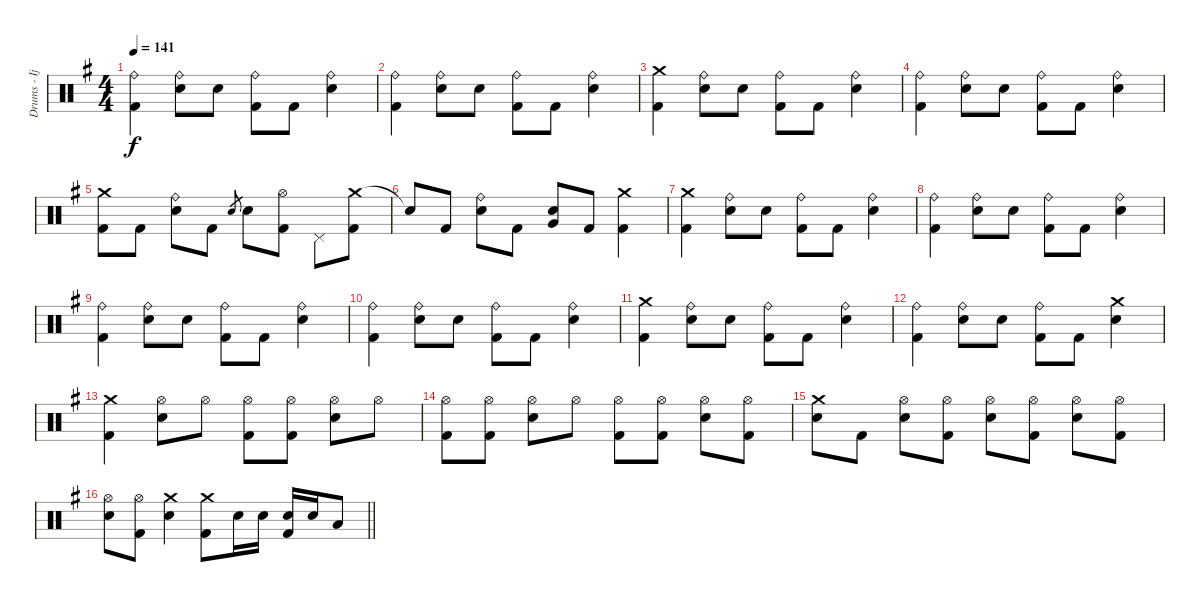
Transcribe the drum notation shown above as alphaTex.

\track ("Drums - Ijichi Kiyoshi" "Drums - Ij") {instrument percussion}
\staff {score}
\articulation defaults
\ts (4 4)
\tempo 141
\clef neutral
\ks g
("Ride (bell)" "Kick (hit) 2").4{dy f} ("Ride (bell)" "Electric Snare (hit)").8 "Electric Snare (hit)".8 ("Ride (bell)" "Kick (hit) 2").8 "Kick (hit) 2".8 ("Ride (bell)" "Electric Snare (hit)").4 |
("Ride (bell)" "Kick (hit) 2").4 ("Ride (bell)" "Electric Snare (hit)").8 "Electric Snare (hit)".8 ("Ride (bell)" "Kick (hit) 2").8 "Kick (hit) 2".8 ("Ride (bell)" "Electric Snare (hit)").4 |
("Crash medium (hit)" "Kick (hit) 2").4 ("Ride (bell)" "Electric Snare (hit)").8 "Electric Snare (hit)".8 ("Ride (bell)" "Kick (hit) 2").8 "Kick (hit) 2".8 ("Ride (bell)" "Electric Snare (hit)").4 |
("Ride (bell)" "Kick (hit) 2").4 ("Ride (bell)" "Electric Snare (hit)").8 "Electric Snare (hit)".8 ("Ride (bell)" "Kick (hit) 2").8 "Kick (hit) 2".8 ("Ride (bell)" "Electric Snare (hit)").4 |
("Crash medium (hit)" "Kick (hit) 2").8 "Kick (hit) 2".8 ("Ride (bell)" "Electric Snare (hit)").8 "Kick (hit) 2".8 "Electric Snare (hit)".8{gr} "Electric Snare (hit)".8 ("Hi-Hat (open)" "Kick (hit) 2").8 "Pedal Hi-Hat (hit)".8 ("Crash medium (hit)" "Kick (hit) 2").8 |
"Snare (hit)"{t}.8 "Kick (hit) 2".8 ("Ride (bell)" "Electric Snare (hit)").8 "Kick (hit) 2".8 ("Electric Snare (hit)" "Very Low Tom (hit)").8 "Kick (hit) 2".8 ("Crash medium (hit)" "Kick (hit) 2").4 |
("Crash medium (hit)" "Kick (hit) 2").4 ("Ride (bell)" "Electric Snare (hit)").8 "Electric Snare (hit)".8 ("Ride (bell)" "Kick (hit) 2").8 "Kick (hit) 2".8 ("Ride (bell)" "Electric Snare (hit)").4 |
("Ride (bell)" "Kick (hit) 2").4 ("Ride (bell)" "Electric Snare (hit)").8 "Electric Snare (hit)".8 ("Ride (bell)" "Kick (hit) 2").8 "Kick (hit) 2".8 ("Ride (bell)" "Electric Snare (hit)").4 |
("Ride (bell)" "Kick (hit) 2").4 ("Ride (bell)" "Electric Snare (hit)").8 "Electric Snare (hit)".8 ("Ride (bell)" "Kick (hit) 2").8 "Kick (hit) 2".8 ("Ride (bell)" "Electric Snare (hit)").4 |
("Ride (bell)" "Kick (hit) 2").4 ("Ride (bell)" "Electric Snare (hit)").8 "Electric Snare (hit)".8 ("Ride (bell)" "Kick (hit) 2").8 "Kick (hit) 2".8 ("Ride (bell)" "Electric Snare (hit)").4 |
("Crash medium (hit)" "Kick (hit) 2").4 ("Ride (bell)" "Electric Snare (hit)").8 "Electric Snare (hit)".8 ("Ride (bell)" "Kick (hit) 2").8 "Kick (hit) 2".8 ("Ride (bell)" "Electric Snare (hit)").4 |
("Ride (bell)" "Kick (hit) 2").4 ("Ride (bell)" "Electric Snare (hit)").8 "Electric Snare (hit)".8 ("Ride (bell)" "Kick (hit) 2").8 "Kick (hit) 2".8 ("Crash medium (hit)" "Electric Snare (hit)").4 |
("Crash medium (hit)" "Kick (hit) 2").4 ("Hi-Hat (open)" "Electric Snare (hit)").8 "Hi-Hat (open)".8 ("Hi-Hat (open)" "Kick (hit) 2").8 ("Hi-Hat (open)" "Kick (hit) 2").8 ("Hi-Hat (open)" "Electric Snare (hit)").8 "Hi-Hat (open)".8 |
("Hi-Hat (open)" "Kick (hit) 2").8 ("Hi-Hat (open)" "Kick (hit) 2").8 ("Hi-Hat (open)" "Electric Snare (hit)").8 "Hi-Hat (open)".8 ("Hi-Hat (open)" "Kick (hit) 2").8 ("Hi-Hat (open)" "Kick (hit) 2").8 ("Hi-Hat (open)" "Electric Snare (hit)").8 ("Hi-Hat (open)" "Kick (hit) 2").8 |
("Crash medium (hit)" "Electric Snare (hit)").8 "Kick (hit) 2".8 ("Hi-Hat (open)" "Electric Snare (hit)").8 ("Hi-Hat (open)" "Kick (hit) 2").8 ("Hi-Hat (open)" "Electric Snare (hit)").8 ("Hi-Hat (open)" "Kick (hit) 2").8 ("Hi-Hat (open)" "Electric Snare (hit)").8 ("Hi-Hat (open)" "Kick (hit) 2").8 |
\barLineRight lightlight
("Hi-Hat (open)" "Electric Snare (hit)").8 ("Hi-Hat (open)" "Kick (hit) 2").8 ("Crash medium (hit)" "Electric Snare (hit)").4 ("Crash medium (hit)" "Kick (hit) 2").8 "Electric Snare (hit)".16 "Electric Snare (hit)".16 ("Electric Snare (hit)" "Kick (hit) 2").16 "Electric Snare (hit)".16 "Low Tom (hit)".8
